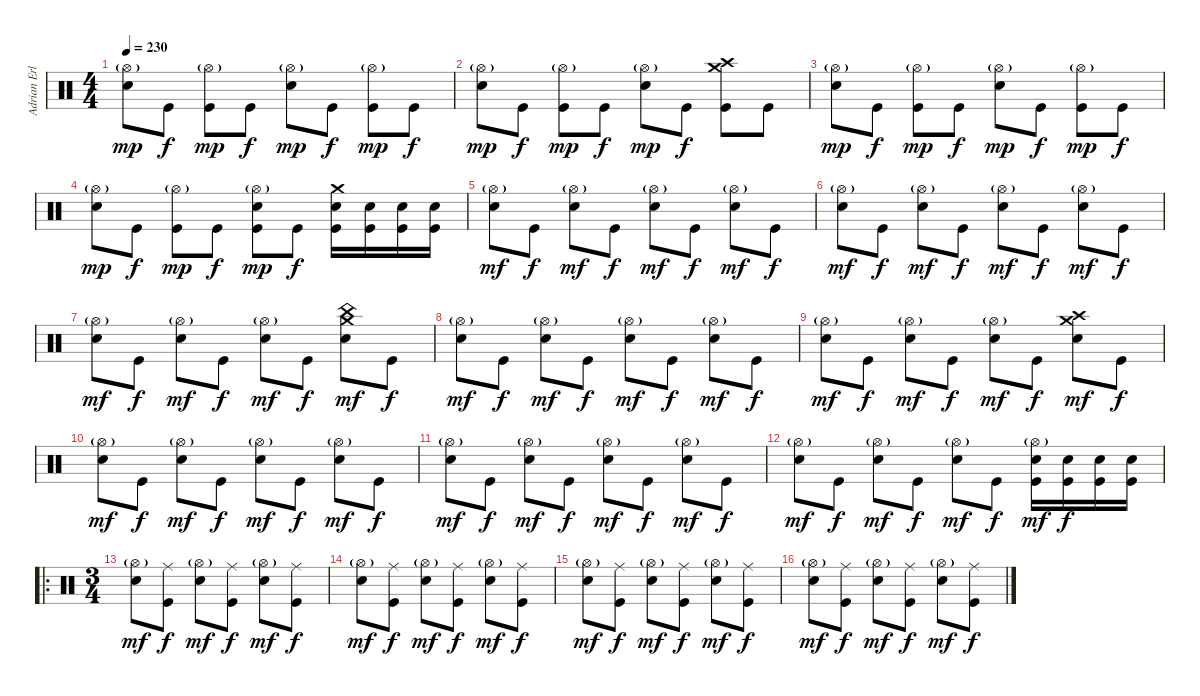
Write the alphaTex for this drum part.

\track ("Adrian Erlandsson - Drums" "Adrian Erl") {instrument percussion}
\staff {score}
\articulation defaults
\ts (4 4)
\tempo 230
\clef neutral
\ks c
("Hi-Hat (open)"{g} "Electric Snare (hit)").8{dy mp} "Kick (hit)".8{dy f} ("Hi-Hat (open)"{g} "Kick (hit)").8{dy mp} "Kick (hit)".8{dy f} ("Hi-Hat (open)"{g} "Electric Snare (hit)").8{dy mp} "Kick (hit)".8{dy f} ("Hi-Hat (open)"{g} "Kick (hit)").8{dy mp} "Kick (hit)".8{dy f} |
("Hi-Hat (open)"{g} "Electric Snare (hit)").8{dy mp} "Kick (hit)".8{dy f} ("Hi-Hat (open)"{g} "Kick (hit)").8{dy mp} "Kick (hit)".8{dy f} ("Hi-Hat (open)"{g} "Electric Snare (hit)").8{dy mp} "Kick (hit)".8{dy f} ("Crash medium (hit)" "Crash high (hit)" "Kick (hit)").8 "Kick (hit)".8 |
("Hi-Hat (open)"{g} "Electric Snare (hit)").8{dy mp} "Kick (hit)".8{dy f} ("Hi-Hat (open)"{g} "Kick (hit)").8{dy mp} "Kick (hit)".8{dy f} ("Hi-Hat (open)"{g} "Electric Snare (hit)").8{dy mp} "Kick (hit)".8{dy f} ("Hi-Hat (open)"{g} "Kick (hit)").8{dy mp} "Kick (hit)".8{dy f} |
("Hi-Hat (open)"{g} "Electric Snare (hit)").8{dy mp} "Kick (hit)".8{dy f} ("Hi-Hat (open)"{g} "Kick (hit)").8{dy mp} "Kick (hit)".8{dy f} ("Hi-Hat (open)"{g} "Electric Snare (hit)" "Kick (hit)").8{dy mp} "Kick (hit)".8{dy f} ("Crash medium (hit)" "Electric Snare (hit)" "Kick (hit)").16 ("Electric Snare (hit)" "Kick (hit)").16 ("Electric Snare (hit)" "Kick (hit)").16 ("Electric Snare (hit)" "Kick (hit)").16 |
("Hi-Hat (open)"{g} "Electric Snare (hit)").8{dy mf} "Kick (hit)".8{dy f} ("Hi-Hat (open)"{g} "Electric Snare (hit)").8{dy mf} "Kick (hit)".8{dy f} ("Hi-Hat (open)"{g} "Electric Snare (hit)").8{dy mf} "Kick (hit)".8{dy f} ("Hi-Hat (open)"{g} "Electric Snare (hit)").8{dy mf} "Kick (hit)".8{dy f} |
("Hi-Hat (open)"{g} "Electric Snare (hit)").8{dy mf} "Kick (hit)".8{dy f} ("Hi-Hat (open)"{g} "Electric Snare (hit)").8{dy mf} "Kick (hit)".8{dy f} ("Hi-Hat (open)"{g} "Electric Snare (hit)").8{dy mf} "Kick (hit)".8{dy f} ("Hi-Hat (open)"{g} "Electric Snare (hit)").8{dy mf} "Kick (hit)".8{dy f} |
("Hi-Hat (open)"{g} "Electric Snare (hit)").8{dy mf} "Kick (hit)".8{dy f} ("Hi-Hat (open)"{g} "Electric Snare (hit)").8{dy mf} "Kick (hit)".8{dy f} ("Hi-Hat (open)"{g} "Electric Snare (hit)").8{dy mf} "Kick (hit)".8{dy f} ("China (hit)" "Crash medium (hit)" "Electric Snare (hit)").8{dy mf} "Kick (hit)".8{dy f} |
("Hi-Hat (open)"{g} "Electric Snare (hit)").8{dy mf} "Kick (hit)".8{dy f} ("Hi-Hat (open)"{g} "Electric Snare (hit)").8{dy mf} "Kick (hit)".8{dy f} ("Hi-Hat (open)"{g} "Electric Snare (hit)").8{dy mf} "Kick (hit)".8{dy f} ("Hi-Hat (open)"{g} "Electric Snare (hit)").8{dy mf} "Kick (hit)".8{dy f} |
("Hi-Hat (open)"{g} "Electric Snare (hit)").8{dy mf} "Kick (hit)".8{dy f} ("Hi-Hat (open)"{g} "Electric Snare (hit)").8{dy mf} "Kick (hit)".8{dy f} ("Hi-Hat (open)"{g} "Electric Snare (hit)").8{dy mf} "Kick (hit)".8{dy f} ("Crash medium (hit)" "Crash high (hit)" "Electric Snare (hit)").8{dy mf} "Kick (hit)".8{dy f} |
("Hi-Hat (open)"{g} "Electric Snare (hit)").8{dy mf} "Kick (hit)".8{dy f} ("Hi-Hat (open)"{g} "Electric Snare (hit)").8{dy mf} "Kick (hit)".8{dy f} ("Hi-Hat (open)"{g} "Electric Snare (hit)").8{dy mf} "Kick (hit)".8{dy f} ("Hi-Hat (open)"{g} "Electric Snare (hit)").8{dy mf} "Kick (hit)".8{dy f} |
("Hi-Hat (open)"{g} "Electric Snare (hit)").8{dy mf} "Kick (hit)".8{dy f} ("Hi-Hat (open)"{g} "Electric Snare (hit)").8{dy mf} "Kick (hit)".8{dy f} ("Hi-Hat (open)"{g} "Electric Snare (hit)").8{dy mf} "Kick (hit)".8{dy f} ("Hi-Hat (open)"{g} "Electric Snare (hit)").8{dy mf} "Kick (hit)".8{dy f} |
("Hi-Hat (open)"{g} "Electric Snare (hit)").8{dy mf} "Kick (hit)".8{dy f} ("Hi-Hat (open)"{g} "Electric Snare (hit)").8{dy mf} "Kick (hit)".8{dy f} ("Hi-Hat (open)"{g} "Electric Snare (hit)").8{dy mf} "Kick (hit)".8{dy f} ("Hi-Hat (open)"{g} "Electric Snare (hit)" "Kick (hit)").16{dy mf} ("Electric Snare (hit)" "Kick (hit)").16{dy f} ("Electric Snare (hit)" "Kick (hit)").16 ("Electric Snare (hit)" "Kick (hit)").16 |
\ro
\ts (3 4)
("Hi-Hat (open)"{g} "Electric Snare (hit)").8{dy mf} ("Ride (middle)" "Kick (hit)").8{dy f} ("Hi-Hat (open)"{g} "Electric Snare (hit)").8{dy mf} ("Ride (middle)" "Kick (hit)").8{dy f} ("Hi-Hat (open)"{g} "Electric Snare (hit)").8{dy mf} ("Ride (middle)" "Kick (hit)").8{dy f} |
("Hi-Hat (open)"{g} "Electric Snare (hit)").8{dy mf} ("Ride (middle)" "Kick (hit)").8{dy f} ("Hi-Hat (open)"{g} "Electric Snare (hit)").8{dy mf} ("Ride (middle)" "Kick (hit)").8{dy f} ("Hi-Hat (open)"{g} "Electric Snare (hit)").8{dy mf} ("Ride (middle)" "Kick (hit)").8{dy f} |
("Hi-Hat (open)"{g} "Electric Snare (hit)").8{dy mf} ("Ride (middle)" "Kick (hit)").8{dy f} ("Hi-Hat (open)"{g} "Electric Snare (hit)").8{dy mf} ("Ride (middle)" "Kick (hit)").8{dy f} ("Hi-Hat (open)"{g} "Electric Snare (hit)").8{dy mf} ("Ride (middle)" "Kick (hit)").8{dy f} |
("Hi-Hat (open)"{g} "Electric Snare (hit)").8{dy mf} ("Ride (middle)" "Kick (hit)").8{dy f} ("Hi-Hat (open)"{g} "Electric Snare (hit)").8{dy mf} ("Ride (middle)" "Kick (hit)").8{dy f} ("Hi-Hat (open)"{g} "Electric Snare (hit)").8{dy mf} ("Ride (middle)" "Kick (hit)").8{dy f}
